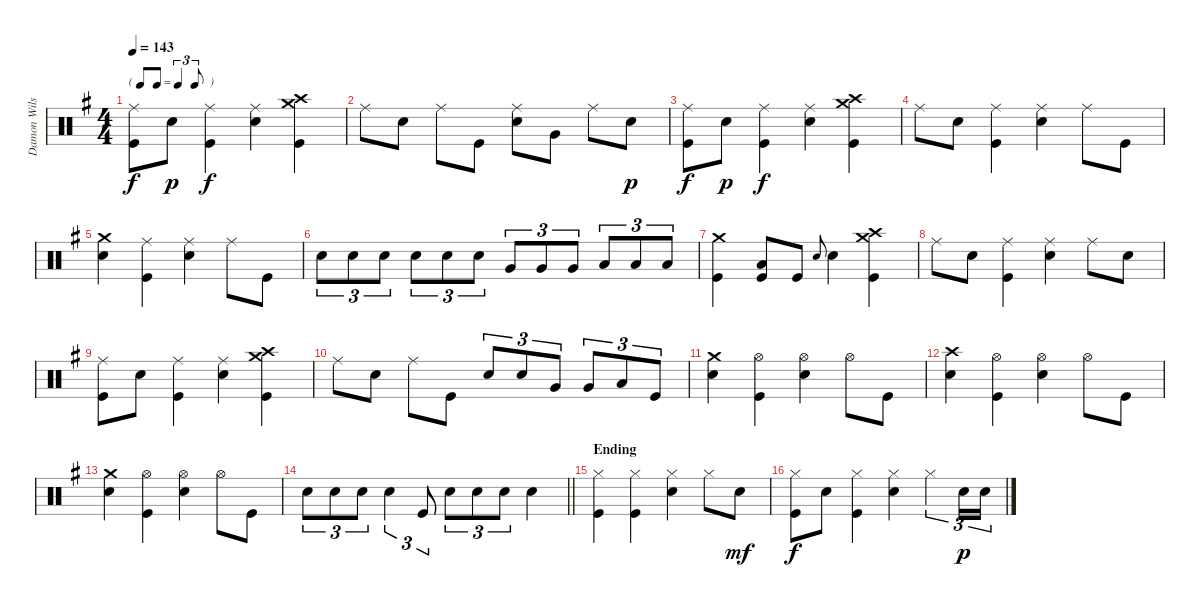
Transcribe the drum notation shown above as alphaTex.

\track ("Damon Wilson" "Damon Wils") {instrument percussion}
\staff {score}
\articulation defaults
\ts (4 4)
\tf triplet8th
\tempo 143
\clef neutral
\ks g
("Ride (middle)" "Kick (hit)").8{dy f} "Electric Snare (hit)".8{dy p} ("Ride (middle)" "Kick (hit)").4{dy f} ("Ride (middle)" "Electric Snare (hit)").4 ("Crash high (hit)" "Crash medium (hit)" "Kick (hit)").4 |
"Ride (middle)".8 "Electric Snare (hit)".8 "Ride (middle)".8 "Kick (hit)".8 ("Ride (middle)" "Electric Snare (hit)").8 "Very Low Tom (hit)".8 "Ride (middle)".8 "Electric Snare (hit)".8{dy p} |
("Ride (middle)" "Kick (hit)").8{dy f} "Electric Snare (hit)".8{dy p} ("Ride (middle)" "Kick (hit)").4{dy f} ("Ride (middle)" "Electric Snare (hit)").4 ("Crash high (hit)" "Crash medium (hit)" "Kick (hit)").4 |
"Ride (middle)".8 "Electric Snare (hit)".8 ("Ride (middle)" "Kick (hit)").4 ("Ride (middle)" "Electric Snare (hit)").4 "Ride (middle)".8 "Kick (hit)".8 |
("Crash medium (hit)" "Electric Snare (hit)").4 ("Ride (middle)" "Kick (hit)").4 ("Ride (middle)" "Electric Snare (hit)").4 "Ride (middle)".8 "Kick (hit)".8 |
"Electric Snare (hit)".8{tu (3 2)} "Electric Snare (hit)".8{tu (3 2)} "Electric Snare (hit)".8{tu (3 2)} "Electric Snare (hit)".8{tu (3 2)} "Electric Snare (hit)".8{tu (3 2)} "Electric Snare (hit)".8{tu (3 2)} "Very Low Tom (hit)".8{tu (3 2)} "Very Low Tom (hit)".8{tu (3 2)} "Very Low Tom (hit)".8{tu (3 2)} "Low Floor Tom (hit)".8{tu (3 2)} "Low Floor Tom (hit)".8{tu (3 2)} "Low Floor Tom (hit)".8{tu (3 2)} |
("Crash medium (hit)" "Kick (hit)").4 ("Low Floor Tom (hit)" "Kick (hit)").8 "Kick (hit)".8 "Electric Snare (hit)".8{gr onbeat} "Electric Snare (hit)".4 ("Crash high (hit)" "Crash medium (hit)" "Kick (hit)").4 |
"Ride (middle)".8 "Electric Snare (hit)".8 ("Ride (middle)" "Kick (hit)").4 ("Ride (middle)" "Electric Snare (hit)").4 "Ride (middle)".8 "Electric Snare (hit)".8 |
("Ride (middle)" "Kick (hit)").8 "Electric Snare (hit)".8 ("Ride (middle)" "Kick (hit)").4 ("Ride (middle)" "Electric Snare (hit)").4 ("Crash high (hit)" "Crash medium (hit)" "Kick (hit)").4 |
"Ride (middle)".8 "Electric Snare (hit)".8 "Ride (middle)".8 "Kick (hit)".8 "Electric Snare (hit)".8{tu (3 2)} "Electric Snare (hit)".8{tu (3 2)} "Very Low Tom (hit)".8{tu (3 2)} "Very Low Tom (hit)".8{tu (3 2)} "Low Floor Tom (hit)".8{tu (3 2)} "Kick (hit)".8{tu (3 2)} |
("Crash medium (hit)" "Electric Snare (hit)").4 ("Hi-Hat (open)" "Kick (hit)").4 ("Hi-Hat (open)" "Electric Snare (hit)").4 "Hi-Hat (open)".8 "Kick (hit)".8 |
("Crash high (hit)" "Electric Snare (hit)").4 ("Hi-Hat (open)" "Kick (hit)").4 ("Hi-Hat (open)" "Electric Snare (hit)").4 "Hi-Hat (open)".8 "Kick (hit)".8 |
("Crash medium (hit)" "Electric Snare (hit)").4 ("Hi-Hat (open)" "Kick (hit)").4 ("Hi-Hat (open)" "Electric Snare (hit)").4 "Hi-Hat (open)".8 "Kick (hit)".8 |
\barLineRight lightlight "Electric Snare (hit)".8{tu (3 2)} "Electric Snare (hit)".8{tu (3 2)} "Electric Snare (hit)".8{tu (3 2)} "Electric Snare (hit)".4{tu (3 2)} "Kick (hit)".8{tu (3 2)} "Electric Snare (hit)".8{tu (3 2)} "Electric Snare (hit)".8{tu (3 2)} "Electric Snare (hit)".8{tu (3 2)} "Electric Snare (hit)".4
|
\section ("" "Ending")
("Hi-Hat (closed)" "Kick (hit)").4 ("Hi-Hat (closed)" "Kick (hit)").4 ("Hi-Hat (closed)" "Electric Snare (hit)").4 "Hi-Hat (closed)".8 "Electric Snare (hit)".8{dy mf} |
("Hi-Hat (closed)" "Kick (hit)").8{dy f} "Electric Snare (hit)".8 ("Hi-Hat (closed)" "Kick (hit)").4 ("Hi-Hat (closed)" "Electric Snare (hit)").4 "Hi-Hat (closed)".4{tu (3 2)} "Electric Snare (hit)".16{tu (3 2) dy p} "Electric Snare (hit)".16{tu (3 2)}
